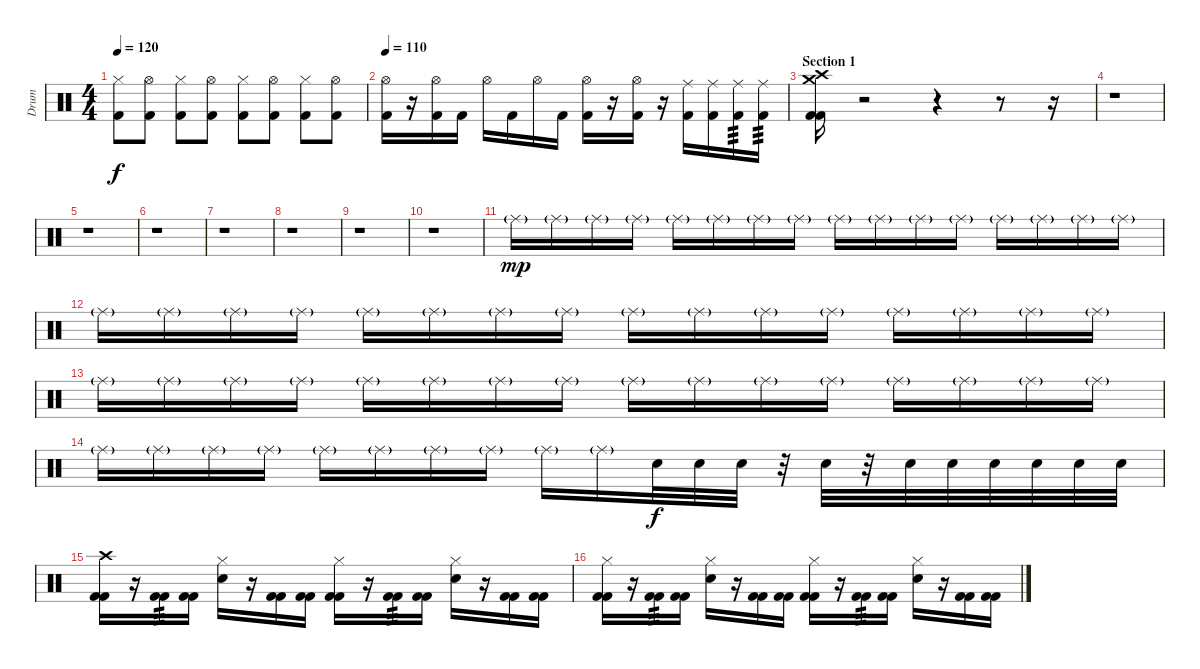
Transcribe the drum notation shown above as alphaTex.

\track ("Drum" "Drum") {instrument percussion}
\staff {score}
\articulation defaults
\ts (4 4)
\tempo 120
\clef neutral
\ks c
("Kick (hit) 2" "Hi-Hat (closed)").8{dy f} ("Kick (hit) 2" "Hi-Hat (open)").8 ("Kick (hit) 2" "Hi-Hat (closed)").8 ("Kick (hit) 2" "Hi-Hat (open)").8 ("Kick (hit) 2" "Hi-Hat (closed)").8 ("Kick (hit) 2" "Hi-Hat (open)").8 ("Kick (hit) 2" "Hi-Hat (closed)").8 ("Kick (hit) 2" "Hi-Hat (open)").8 |
\tempo 110
("Kick (hit) 2" "Hi-Hat (open)").16 r.16 ("Kick (hit) 2" "Hi-Hat (open)").16 "Kick (hit) 2".16 "Hi-Hat (open)".16 "Kick (hit) 2".16 "Hi-Hat (open)".16 "Kick (hit) 2".16 ("Kick (hit) 2" "Hi-Hat (open)").16 r.16 ("Kick (hit) 2" "Hi-Hat (open)").16 r.16 ("Kick (hit) 2" "Ride (middle)").16 ("Kick (hit) 2" "Ride (middle)").16 ("Kick (hit) 2" "Ride (middle)").16{tp 3} ("Kick (hit) 2" "Ride (middle)").16{tp 3} |
\section ("" "Section 1")
("Kick (hit) 2" "Kick (hit) 2" "Crash high (hit)" "Crash medium (hit)").16 r.2 r.4 r.8 r.16 |
r.1 |
r.1 |
r.1 |
r.1 |
r.1 |
r.1 |
r.1 |
"Ride (middle)"{g}.16{dy mp} "Ride (middle)"{g}.16 "Ride (middle)"{g}.16 "Ride (middle)"{g}.16 "Ride (middle)"{g}.16 "Ride (middle)"{g}.16 "Ride (middle)"{g}.16 "Ride (middle)"{g}.16 "Ride (middle)"{g}.16 "Ride (middle)"{g}.16 "Ride (middle)"{g}.16 "Ride (middle)"{g}.16 "Ride (middle)"{g}.16 "Ride (middle)"{g}.16 "Ride (middle)"{g}.16 "Ride (middle)"{g}.16 |
"Ride (middle)"{g}.16 "Ride (middle)"{g}.16 "Ride (middle)"{g}.16 "Ride (middle)"{g}.16 "Ride (middle)"{g}.16 "Ride (middle)"{g}.16 "Ride (middle)"{g}.16 "Ride (middle)"{g}.16 "Ride (middle)"{g}.16 "Ride (middle)"{g}.16 "Ride (middle)"{g}.16 "Ride (middle)"{g}.16 "Ride (middle)"{g}.16 "Ride (middle)"{g}.16 "Ride (middle)"{g}.16 "Ride (middle)"{g}.16 |
"Ride (middle)"{g}.16 "Ride (middle)"{g}.16 "Ride (middle)"{g}.16 "Ride (middle)"{g}.16 "Ride (middle)"{g}.16 "Ride (middle)"{g}.16 "Ride (middle)"{g}.16 "Ride (middle)"{g}.16 "Ride (middle)"{g}.16 "Ride (middle)"{g}.16 "Ride (middle)"{g}.16 "Ride (middle)"{g}.16 "Ride (middle)"{g}.16 "Ride (middle)"{g}.16 "Ride (middle)"{g}.16 "Ride (middle)"{g}.16 |
"Ride (middle)"{g}.16 "Ride (middle)"{g}.16 "Ride (middle)"{g}.16 "Ride (middle)"{g}.16 "Ride (middle)"{g}.16 "Ride (middle)"{g}.16 "Ride (middle)"{g}.16 "Ride (middle)"{g}.16 "Ride (middle)"{g}.16 "Ride (middle)"{g}.16 "Electric Snare (hit)".32{dy f} "Electric Snare (hit)".32 "Electric Snare (hit)".32 r.32 "Electric Snare (hit)".32 r.32 "Electric Snare (hit)".32 "Electric Snare (hit)".32 "Electric Snare (hit)".32 "Electric Snare (hit)".32 "Electric Snare (hit)".32 "Electric Snare (hit)".32 |
("Kick (hit) 2" "Kick (hit) 2" "Crash high (hit)").16 r.16 ("Kick (hit) 2" "Kick (hit) 2").16{tp 3} ("Kick (hit) 2" "Kick (hit) 2").16 ("Electric Snare (hit)" "Hi-Hat (closed)").16 r.16 ("Kick (hit) 2" "Kick (hit) 2").16 ("Kick (hit) 2" "Kick (hit) 2").16 ("Kick (hit) 2" "Kick (hit) 2" "Hi-Hat (closed)").16 r.16 ("Kick (hit) 2" "Kick (hit) 2").16{tp 3} ("Kick (hit) 2" "Kick (hit) 2").16 ("Electric Snare (hit)" "Hi-Hat (closed)").16 r.16 ("Kick (hit) 2" "Kick (hit) 2").16 ("Kick (hit) 2" "Kick (hit) 2").16 |
("Kick (hit) 2" "Kick (hit) 2" "Hi-Hat (closed)").16 r.16 ("Kick (hit) 2" "Kick (hit) 2").16{tp 3} ("Kick (hit) 2" "Kick (hit) 2").16 ("Electric Snare (hit)" "Hi-Hat (closed)").16 r.16 ("Kick (hit) 2" "Kick (hit) 2").16 ("Kick (hit) 2" "Kick (hit) 2").16 ("Kick (hit) 2" "Kick (hit) 2" "Hi-Hat (closed)").16 r.16 ("Kick (hit) 2" "Kick (hit) 2").16{tp 3} ("Kick (hit) 2" "Kick (hit) 2").16 ("Electric Snare (hit)" "Hi-Hat (closed)").16 r.16 ("Kick (hit) 2" "Kick (hit) 2").16 ("Kick (hit) 2" "Kick (hit) 2").16
